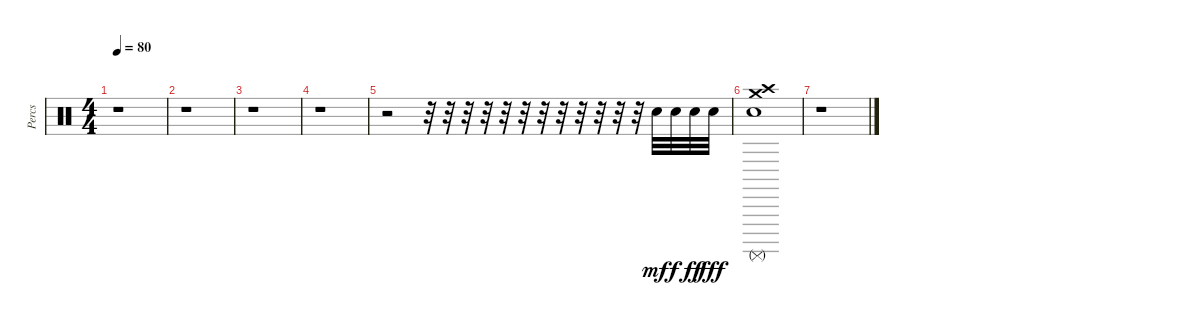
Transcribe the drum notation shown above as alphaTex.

\track ("Percs" "Percs") {instrument percussion}
\staff {score}
\articulation defaults
\ts (4 4)
\tempo 80
\clef neutral
\ks c
r.1{dy f} |
r.1 |
r.1 |
r.1 |
r.2 r.32 r.32 r.32 r.32 r.32 r.32 r.32 r.32 r.32 r.32 r.32 r.32 "Snare (hit) 2".32{dy mf} "Snare (hit) 2".32{dy f} "Snare (hit) 2".32{dy ff} "Snare (hit) 2".32{dy fff} |
("Crash medium (hit)" "Crash high (hit)" "Snare (hit) 2" "Surdo (mute)").1 |
r.1
